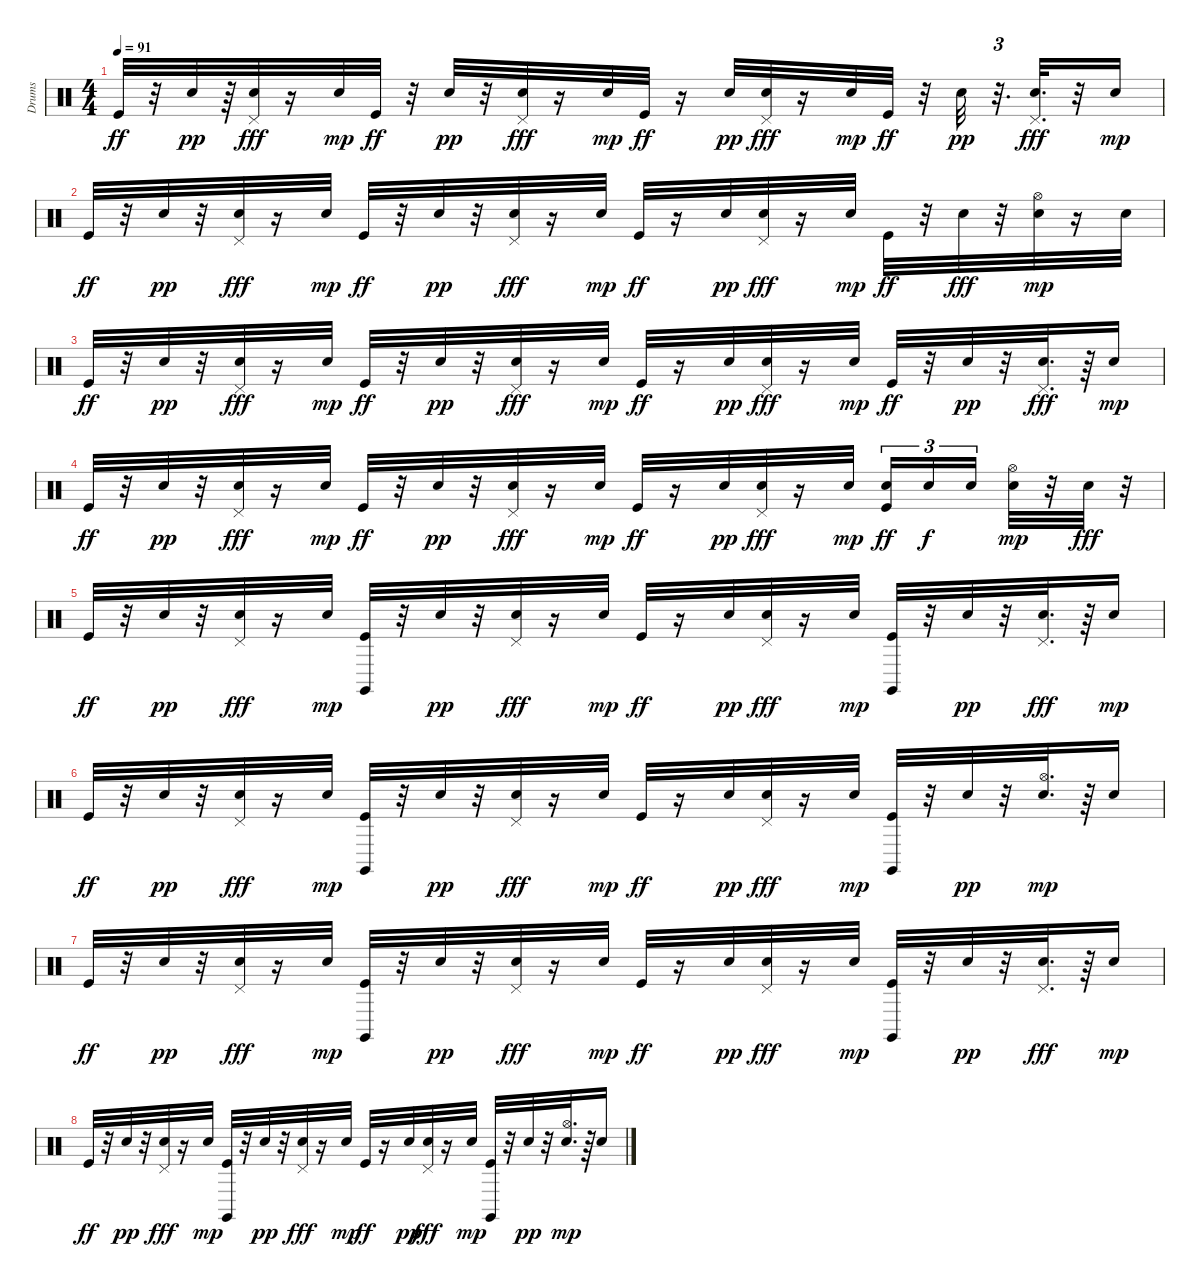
\track ("Drums" "Drums") {instrument percussion}
\staff {score}
\articulation defaults
\ts (4 4)
\tempo 91
\clef neutral
\ks c "Kick (hit)".32{dy ff}
r.32 "Snare (hit) 2".32{dy pp} r.64 ("Snare (hit) 2" "Pedal Hi-Hat (hit)").32{dy fff} r.16 "Snare (hit) 2".32{dy mp} "Kick (hit)".32{dy ff} r.32 "Snare (hit) 2".32{dy pp} r.32 ("Snare (hit) 2" "Pedal Hi-Hat (hit)").32{dy fff} r.16 "Snare (hit) 2".32{dy mp} "Kick (hit)".32{dy ff} r.16 "Snare (hit) 2".32{dy pp} ("Snare (hit) 2" "Pedal Hi-Hat (hit)").32{dy fff} r.16 "Snare (hit) 2".32{dy mp} "Kick (hit)".32{dy ff} r.32 "Snare (hit) 2".32{dy pp} r.32{d tu (3 2)} ("Snare (hit) 2" "Pedal Hi-Hat (hit)").32{d dy fff} r.32 "Snare (hit) 2".16{dy mp} |
"Kick (hit)".32{dy ff} r.32 "Snare (hit) 2".32{dy pp} r.32 ("Snare (hit) 2" "Pedal Hi-Hat (hit)").32{dy fff} r.16 "Snare (hit) 2".32{dy mp} "Kick (hit)".32{dy ff} r.32 "Snare (hit) 2".32{dy pp} r.32 ("Snare (hit) 2" "Pedal Hi-Hat (hit)").32{dy fff} r.16 "Snare (hit) 2".32{dy mp} "Kick (hit)".32{dy ff} r.16 "Snare (hit) 2".32{dy pp} ("Snare (hit) 2" "Pedal Hi-Hat (hit)").32{dy fff} r.16 "Snare (hit) 2".32{dy mp} "Kick (hit)".32{dy ff} r.32 "Snare (hit) 2".32{dy fff} r.32 ("Snare (hit) 2" "Hi-Hat (open)").32{dy mp} r.16 "Snare (hit) 2".32 |
"Kick (hit)".32{dy ff} r.32 "Snare (hit) 2".32{dy pp} r.32 ("Snare (hit) 2" "Pedal Hi-Hat (hit)").32{dy fff} r.16 "Snare (hit) 2".32{dy mp} "Kick (hit)".32{dy ff} r.32 "Snare (hit) 2".32{dy pp} r.32 ("Snare (hit) 2" "Pedal Hi-Hat (hit)").32{dy fff} r.16 "Snare (hit) 2".32{dy mp} "Kick (hit)".32{dy ff} r.16 "Snare (hit) 2".32{dy pp} ("Snare (hit) 2" "Pedal Hi-Hat (hit)").32{dy fff} r.16 "Snare (hit) 2".32{dy mp} "Kick (hit)".32{dy ff} r.32 "Snare (hit) 2".32{dy pp} r.32 ("Snare (hit) 2" "Pedal Hi-Hat (hit)").32{d dy fff} r.64 "Snare (hit) 2".16{dy mp} |
"Kick (hit)".32{dy ff} r.32 "Snare (hit) 2".32{dy pp} r.32 ("Snare (hit) 2" "Pedal Hi-Hat (hit)").32{dy fff} r.16 "Snare (hit) 2".32{dy mp} "Kick (hit)".32{dy ff} r.32 "Snare (hit) 2".32{dy pp} r.32 ("Snare (hit) 2" "Pedal Hi-Hat (hit)").32{dy fff} r.16 "Snare (hit) 2".32{dy mp} "Kick (hit)".32{dy ff} r.16 "Snare (hit) 2".32{dy pp} ("Snare (hit) 2" "Pedal Hi-Hat (hit)").32{dy fff} r.16 "Snare (hit) 2".32{dy mp} ("Kick (hit)" "Snare (hit) 2").16{tu (3 2) dy ff} "Snare (hit) 2".16{tu (3 2) dy f} "Snare (hit) 2".16{tu (3 2) beam splitsecondary} ("Snare (hit) 2" "Hi-Hat (open)").32{dy mp} r.32 "Snare (hit) 2".32{dy fff} r.32 |
"Kick (hit)".32{dy ff} r.32 "Snare (hit) 2".32{dy pp} r.32 ("Snare (hit) 2" "Pedal Hi-Hat (hit)").32{dy fff} r.16 "Snare (hit) 2".32{dy mp} ("Kick (hit)" "Claves (hit)").32 r.32 "Snare (hit) 2".32{dy pp} r.32 ("Snare (hit) 2" "Pedal Hi-Hat (hit)").32{dy fff} r.16 "Snare (hit) 2".32{dy mp} "Kick (hit)".32{dy ff} r.16 "Snare (hit) 2".32{dy pp} ("Snare (hit) 2" "Pedal Hi-Hat (hit)").32{dy fff} r.16 "Snare (hit) 2".32{dy mp} ("Kick (hit)" "Claves (hit)").32 r.32 "Snare (hit) 2".32{dy pp} r.32 ("Snare (hit) 2" "Pedal Hi-Hat (hit)").32{d dy fff} r.64 "Snare (hit) 2".16{dy mp} |
"Kick (hit)".32{dy ff} r.32 "Snare (hit) 2".32{dy pp} r.32 ("Snare (hit) 2" "Pedal Hi-Hat (hit)").32{dy fff} r.16 "Snare (hit) 2".32{dy mp} ("Kick (hit)" "Claves (hit)").32 r.32 "Snare (hit) 2".32{dy pp} r.32 ("Snare (hit) 2" "Pedal Hi-Hat (hit)").32{dy fff} r.16 "Snare (hit) 2".32{dy mp} "Kick (hit)".32{dy ff} r.16 "Snare (hit) 2".32{dy pp} ("Snare (hit) 2" "Pedal Hi-Hat (hit)").32{dy fff} r.16 "Snare (hit) 2".32{dy mp} ("Kick (hit)" "Claves (hit)").32 r.32 "Snare (hit) 2".32{dy pp} r.32 ("Snare (hit) 2" "Hi-Hat (open)").32{d dy mp} r.64 "Snare (hit) 2".16 |
"Kick (hit)".32{dy ff} r.32 "Snare (hit) 2".32{dy pp} r.32 ("Snare (hit) 2" "Pedal Hi-Hat (hit)").32{dy fff} r.16 "Snare (hit) 2".32{dy mp} ("Kick (hit)" "Claves (hit)").32 r.32 "Snare (hit) 2".32{dy pp} r.32 ("Snare (hit) 2" "Pedal Hi-Hat (hit)").32{dy fff} r.16 "Snare (hit) 2".32{dy mp} "Kick (hit)".32{dy ff} r.16 "Snare (hit) 2".32{dy pp} ("Snare (hit) 2" "Pedal Hi-Hat (hit)").32{dy fff} r.16 "Snare (hit) 2".32{dy mp} ("Kick (hit)" "Claves (hit)").32 r.32 "Snare (hit) 2".32{dy pp} r.32 ("Snare (hit) 2" "Pedal Hi-Hat (hit)").32{d dy fff} r.64 "Snare (hit) 2".16{dy mp} |
"Kick (hit)".32{dy ff} r.32 "Snare (hit) 2".32{dy pp} r.32 ("Snare (hit) 2" "Pedal Hi-Hat (hit)").32{dy fff} r.16 "Snare (hit) 2".32{dy mp} ("Kick (hit)" "Claves (hit)").32 r.32 "Snare (hit) 2".32{dy pp} r.32 ("Snare (hit) 2" "Pedal Hi-Hat (hit)").32{dy fff} r.16 "Snare (hit) 2".32{dy mp} "Kick (hit)".32{dy ff} r.16 "Snare (hit) 2".32{dy pp} ("Snare (hit) 2" "Pedal Hi-Hat (hit)").32{dy fff} r.16 "Snare (hit) 2".32{dy mp} ("Kick (hit)" "Claves (hit)").32 r.32 "Snare (hit) 2".32{dy pp} r.32 ("Snare (hit) 2" "Hi-Hat (open)").32{d dy mp} r.64 "Snare (hit) 2".16
